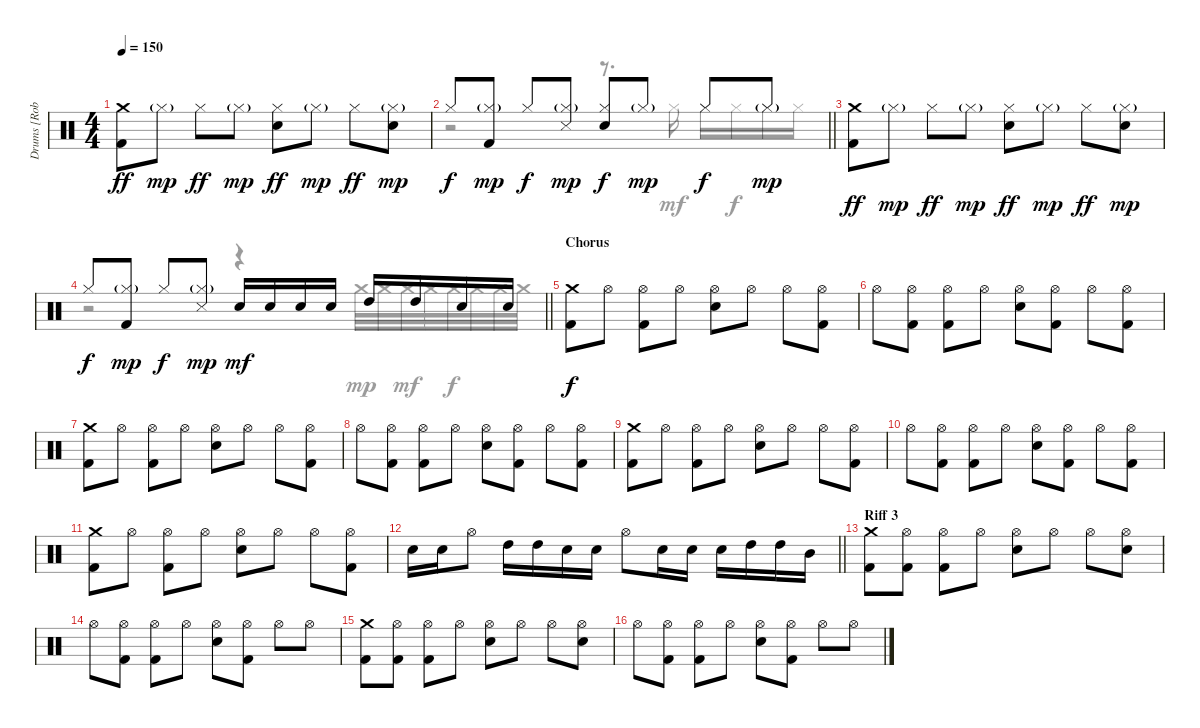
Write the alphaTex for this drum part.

\track ("Drums [Rob Bourdon]" "Drums [Rob") {instrument percussion}
\staff {score}
\articulation defaults
\voice
\ts (4 4)
\tempo 150
\clef neutral
\ks c
("Crash medium (hit)" "Kick (hit) 2").8{dy ff} "Hi-Hat (closed)"{g}.8{dy mp} "Hi-Hat (closed)".8{dy ff} "Hi-Hat (closed)"{g}.8{dy mp} ("Hi-Hat (closed)" "Electric Snare (hit)").8{dy ff} "Hi-Hat (closed)"{g}.8{dy mp} "Hi-Hat (closed)".8{dy ff} ("Hi-Hat (closed)"{g} "Snare (hit) 2").8{dy mp} |
\barLineRight lightlight "Hi-Hat (closed)".8{dy f}
("Hi-Hat (closed)"{g} "Kick (hit) 2").8{dy mp} "Hi-Hat (closed)".8{dy f} ("Hi-Hat (closed)"{g} "Snare (side stick) 3").8{dy mp} ("Hi-Hat (closed)" "Snare (hit) 2").8{dy f} "Hi-Hat (closed)"{g}.8{dy mp} "Hi-Hat (closed)".8{dy f} "Hi-Hat (closed)"{g}.8{dy mp} |
("Crash medium (hit)" "Kick (hit) 2").8{dy ff} "Hi-Hat (closed)"{g}.8{dy mp} "Hi-Hat (closed)".8{dy ff} "Hi-Hat (closed)"{g}.8{dy mp} ("Hi-Hat (closed)" "Electric Snare (hit)").8{dy ff} "Hi-Hat (closed)"{g}.8{dy mp} "Hi-Hat (closed)".8{dy ff} ("Hi-Hat (closed)"{g} "Snare (hit) 2").8{dy mp} |
\barLineRight lightlight "Hi-Hat (closed)".8{dy f}
("Hi-Hat (closed)"{g} "Kick (hit) 2").8{dy mp} "Hi-Hat (closed)".8{dy f} ("Hi-Hat (closed)"{g} "Snare (side stick) 3").8{dy mp} "Snare (hit) 2".16{dy mf} "Snare (hit) 2".16 "Snare (hit) 2".16 "Snare (hit) 2".16 "High Tom (hit)".16 "High Tom (hit)".16 "Snare (hit) 2".16 "Snare (hit) 2".16 |
\section ("" "Chorus")
("Crash medium (hit)" "Kick (hit) 2").8{dy f} "Hi-Hat (open)".8 ("Hi-Hat (open)" "Kick (hit) 2").8 "Hi-Hat (open)".8 ("Hi-Hat (open)" "Snare (hit) 2").8 "Hi-Hat (open)".8 "Hi-Hat (open)".8 ("Hi-Hat (open)" "Kick (hit) 2").8 |
"Hi-Hat (open)".8 ("Hi-Hat (open)" "Kick (hit) 2").8 ("Hi-Hat (open)" "Kick (hit) 2").8 "Hi-Hat (open)".8 ("Hi-Hat (open)" "Snare (hit) 2").8 ("Hi-Hat (open)" "Kick (hit) 2").8 "Hi-Hat (open)".8 ("Hi-Hat (open)" "Kick (hit) 2").8 |
("Crash medium (hit)" "Kick (hit) 2").8 "Hi-Hat (open)".8 ("Hi-Hat (open)" "Kick (hit) 2").8 "Hi-Hat (open)".8 ("Hi-Hat (open)" "Snare (hit) 2").8 "Hi-Hat (open)".8 "Hi-Hat (open)".8 ("Hi-Hat (open)" "Kick (hit) 2").8 |
"Hi-Hat (open)".8 ("Hi-Hat (open)" "Kick (hit) 2").8 ("Hi-Hat (open)" "Kick (hit) 2").8 "Hi-Hat (open)".8 ("Hi-Hat (open)" "Snare (hit) 2").8 ("Hi-Hat (open)" "Kick (hit) 2").8 "Hi-Hat (open)".8 ("Hi-Hat (open)" "Kick (hit) 2").8 |
("Crash medium (hit)" "Kick (hit) 2").8 "Hi-Hat (open)".8 ("Hi-Hat (open)" "Kick (hit) 2").8 "Hi-Hat (open)".8 ("Hi-Hat (open)" "Snare (hit) 2").8 "Hi-Hat (open)".8 "Hi-Hat (open)".8 ("Hi-Hat (open)" "Kick (hit) 2").8 |
"Hi-Hat (open)".8 ("Hi-Hat (open)" "Kick (hit) 2").8 ("Hi-Hat (open)" "Kick (hit) 2").8 "Hi-Hat (open)".8 ("Hi-Hat (open)" "Snare (hit) 2").8 ("Hi-Hat (open)" "Kick (hit) 2").8 "Hi-Hat (open)".8 ("Hi-Hat (open)" "Kick (hit) 2").8 |
("Crash medium (hit)" "Kick (hit) 2").8 "Hi-Hat (open)".8 ("Hi-Hat (open)" "Kick (hit) 2").8 "Hi-Hat (open)".8 ("Hi-Hat (open)" "Snare (hit) 2").8 "Hi-Hat (open)".8 "Hi-Hat (open)".8 ("Hi-Hat (open)" "Kick (hit) 2").8 |
\barLineRight lightlight "Snare (hit) 2".16 "Snare (hit) 2".16 "Hi-Hat (open)".8 "High Tom (hit)".16 "High Tom (hit)".16 "Snare (hit) 2".16 "Snare (hit) 2".16 "Hi-Hat (open)".8 "Snare (hit) 2".16 "Snare (hit) 2".16 "Snare (hit) 2".16 "High Tom (hit)".16 "High Tom (hit)".16 "Mid Tom (hit)".16
|
\section ("" "Riff 3")
("Crash medium (hit)" "Kick (hit) 2").8 ("Hi-Hat (open)" "Kick (hit) 2").8 ("Hi-Hat (open)" "Kick (hit) 2").8 "Hi-Hat (open)".8 ("Hi-Hat (open)" "Electric Snare (hit)").8 "Hi-Hat (open)".8 "Hi-Hat (open)".8 ("Hi-Hat (open)" "Snare (hit) 2").8 |
"Hi-Hat (open)".8 ("Hi-Hat (open)" "Kick (hit) 2").8 ("Hi-Hat (open)" "Kick (hit) 2").8 "Hi-Hat (open)".8 ("Hi-Hat (open)" "Snare (hit) 2").8 ("Hi-Hat (open)" "Kick (hit) 2").8 "Hi-Hat (open)".8 "Hi-Hat (open)".8 |
("Crash medium (hit)" "Kick (hit) 2").8 ("Hi-Hat (open)" "Kick (hit) 2").8 ("Hi-Hat (open)" "Kick (hit) 2").8 "Hi-Hat (open)".8 ("Hi-Hat (open)" "Electric Snare (hit)").8 "Hi-Hat (open)".8 "Hi-Hat (open)".8 ("Hi-Hat (open)" "Snare (hit) 2").8 |
"Hi-Hat (open)".8 ("Hi-Hat (open)" "Kick (hit) 2").8 ("Hi-Hat (open)" "Kick (hit) 2").8 "Hi-Hat (open)".8 ("Hi-Hat (open)" "Snare (hit) 2").8 ("Hi-Hat (open)" "Kick (hit) 2").8 "Hi-Hat (open)".8 "Hi-Hat (open)".8
\voice
\clef neutral
\ottava regular
\simile none
\ks c
|
\barLineRight lightlight
r.2 r.8{d} "Hi-Hat (closed)".16{dy mf} "Hi-Hat (closed)".16 "Hi-Hat (closed)".16{dy f} "Hi-Hat (closed)".16 "Hi-Hat (closed)".16 |
|
\barLineRight lightlight
r.2 r.4 "Crash medium (hit)".32{dy mp} "Crash medium (hit)".32 "Crash medium (hit)".32{dy mf} "Crash medium (hit)".32 "Crash medium (hit)".32{dy f} "Crash medium (hit)".32 "Crash medium (hit)".32 "Crash medium (hit)".32 |
|
|
|
|
|
|
|
\barLineRight lightlight
|
|
|
|
